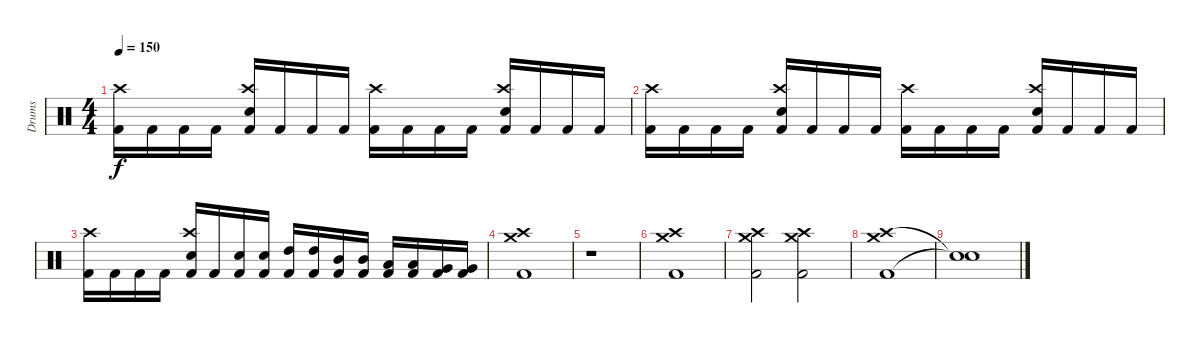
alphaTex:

\track ("Drums" "Drums") {instrument percussion}
\staff {score}
\articulation defaults
\ts (4 4)
\tempo 150
\clef neutral
\ks c
("Kick (hit) 2" "Crash high (hit)").16{dy f} "Kick (hit) 2".16 "Kick (hit) 2".16 "Kick (hit) 2".16 ("Kick (hit) 2" "Electric Snare (hit)" "Crash high (hit)").16 "Kick (hit) 2".16 "Kick (hit) 2".16 "Kick (hit) 2".16 ("Kick (hit) 2" "Crash high (hit)").16 "Kick (hit) 2".16 "Kick (hit) 2".16 "Kick (hit) 2".16 ("Kick (hit) 2" "Electric Snare (hit)" "Crash high (hit)").16 "Kick (hit) 2".16 "Kick (hit) 2".16 "Kick (hit) 2".16 |
("Kick (hit) 2" "Crash high (hit)").16 "Kick (hit) 2".16 "Kick (hit) 2".16 "Kick (hit) 2".16 ("Kick (hit) 2" "Electric Snare (hit)" "Crash high (hit)").16 "Kick (hit) 2".16 "Kick (hit) 2".16 "Kick (hit) 2".16 ("Kick (hit) 2" "Crash high (hit)").16 "Kick (hit) 2".16 "Kick (hit) 2".16 "Kick (hit) 2".16 ("Kick (hit) 2" "Electric Snare (hit)" "Crash high (hit)").16 "Kick (hit) 2".16 "Kick (hit) 2".16 "Kick (hit) 2".16 |
("Kick (hit) 2" "Crash high (hit)").16 "Kick (hit) 2".16 "Kick (hit) 2".16 "Kick (hit) 2".16 ("Kick (hit) 2" "Electric Snare (hit)" "Crash high (hit)").16 "Kick (hit) 2".16 ("Kick (hit) 2" "Electric Snare (hit)").16 ("Kick (hit) 2" "Electric Snare (hit)").16 ("Kick (hit) 2" "High Tom (hit)").16 ("Kick (hit) 2" "High Tom (hit)").16 ("Kick (hit) 2" "Mid Tom (hit)").16 ("Kick (hit) 2" "Mid Tom (hit)").16 ("Kick (hit) 2" "Low Tom (hit)").16 ("Kick (hit) 2" "Low Tom (hit)").16 ("Kick (hit) 2" "Very Low Tom (hit)").16 ("Kick (hit) 2" "Very Low Tom (hit)").16 |
("Kick (hit) 2" "Crash high (hit)" "Crash medium (hit)").1 |
r.1 |
("Kick (hit) 2" "Crash high (hit)" "Crash medium (hit)").1 |
("Kick (hit) 2" "Crash high (hit)" "Crash medium (hit)").2 ("Kick (hit) 2" "Crash high (hit)" "Crash medium (hit)").2 |
("Kick (hit) 2" "Crash high (hit)" "Crash medium (hit)").1 |
("Snare (hit)"{t} "Snare (hit)"{t}).1
